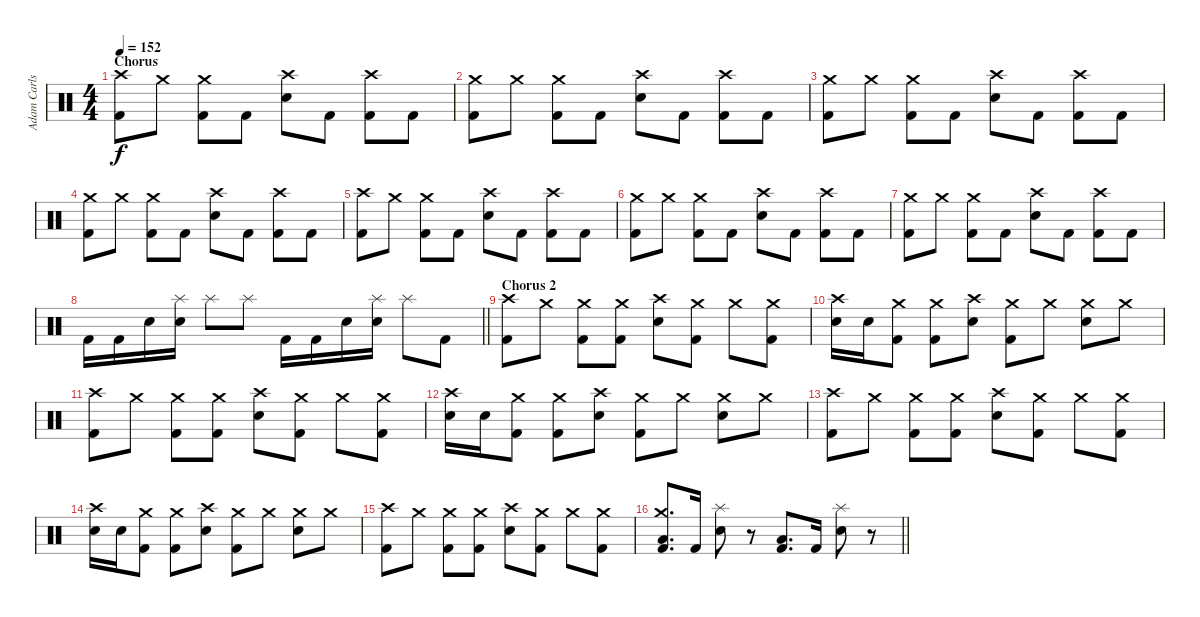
\track ("Adam Carlson" "Adam Carls") {instrument percussion}
\staff {score}
\articulation defaults
\ts (4 4)
\section ("" "Chorus")
\tempo 152
\clef neutral
\ks c
("Crash high (hit)" "Kick (hit) 2").8{dy f} "Crash medium (hit)".8 ("Crash medium (hit)" "Kick (hit) 2").8 "Kick (hit) 2".8 ("Electric Snare (hit)" "Crash high (hit)").8 "Kick (hit) 2".8 ("Kick (hit) 2" "Crash high (hit)").8 "Kick (hit) 2".8 |
("Crash medium (hit)" "Kick (hit) 2").8 "Crash medium (hit)".8 ("Crash medium (hit)" "Kick (hit) 2").8 "Kick (hit) 2".8 ("Electric Snare (hit)" "Crash high (hit)").8 "Kick (hit) 2".8 ("Kick (hit) 2" "Crash high (hit)").8 "Kick (hit) 2".8 |
("Crash medium (hit)" "Kick (hit) 2").8 "Crash medium (hit)".8 ("Crash medium (hit)" "Kick (hit) 2").8 "Kick (hit) 2".8 ("Electric Snare (hit)" "Crash high (hit)").8 "Kick (hit) 2".8 ("Kick (hit) 2" "Crash high (hit)").8 "Kick (hit) 2".8 |
("Crash medium (hit)" "Kick (hit) 2").8 "Crash medium (hit)".8 ("Crash medium (hit)" "Kick (hit) 2").8 "Kick (hit) 2".8 ("Electric Snare (hit)" "Crash high (hit)").8 "Kick (hit) 2".8 ("Kick (hit) 2" "Crash high (hit)").8 "Kick (hit) 2".8 |
("Crash high (hit)" "Kick (hit) 2").8 "Crash medium (hit)".8 ("Crash medium (hit)" "Kick (hit) 2").8 "Kick (hit) 2".8 ("Electric Snare (hit)" "Crash high (hit)").8 "Kick (hit) 2".8 ("Kick (hit) 2" "Crash high (hit)").8 "Kick (hit) 2".8 |
("Crash medium (hit)" "Kick (hit) 2").8 "Crash medium (hit)".8 ("Crash medium (hit)" "Kick (hit) 2").8 "Kick (hit) 2".8 ("Electric Snare (hit)" "Crash high (hit)").8 "Kick (hit) 2".8 ("Kick (hit) 2" "Crash high (hit)").8 "Kick (hit) 2".8 |
("Crash medium (hit)" "Kick (hit) 2").8 "Crash medium (hit)".8 ("Crash medium (hit)" "Kick (hit) 2").8 "Kick (hit) 2".8 ("Electric Snare (hit)" "Crash high (hit)").8 "Kick (hit) 2".8 ("Kick (hit) 2" "Crash high (hit)").8 "Kick (hit) 2".8 |
\barLineRight lightlight "Kick (hit) 2".16 "Kick (hit) 2".16 "Electric Snare (hit)".16
("Splash (hit)" "Electric Snare (hit)").16 "Splash (hit)".8 "Splash (hit)".8 "Kick (hit) 2".16 "Kick (hit) 2".16 "Electric Snare (hit)".16 ("Splash (hit)" "Electric Snare (hit)").16 "Splash (hit)".8 "Kick (hit) 2".8 |
\section ("" "Chorus 2")
("Crash high (hit)" "Kick (hit) 2").8 "Crash medium (hit)".8 ("Crash medium (hit)" "Kick (hit) 2").8 ("Kick (hit) 2" "Crash medium (hit)").8 ("Electric Snare (hit)" "Crash high (hit)").8 ("Crash medium (hit)" "Kick (hit) 2").8 "Crash medium (hit)".8 ("Crash medium (hit)" "Kick (hit) 2").8 |
("Crash high (hit)" "Electric Snare (hit)").16 "Electric Snare (hit)".16 ("Crash medium (hit)" "Kick (hit) 2").8 ("Crash medium (hit)" "Kick (hit) 2").8 ("Electric Snare (hit)" "Crash high (hit)").8 ("Crash medium (hit)" "Kick (hit) 2").8 "Crash medium (hit)".8 ("Crash medium (hit)" "Electric Snare (hit)").8 "Crash medium (hit)".8 |
("Crash high (hit)" "Kick (hit) 2").8 "Crash medium (hit)".8 ("Crash medium (hit)" "Kick (hit) 2").8 ("Kick (hit) 2" "Crash medium (hit)").8 ("Electric Snare (hit)" "Crash high (hit)").8 ("Crash medium (hit)" "Kick (hit) 2").8 "Crash medium (hit)".8 ("Crash medium (hit)" "Kick (hit) 2").8 |
("Crash high (hit)" "Electric Snare (hit)").16 "Electric Snare (hit)".16 ("Crash medium (hit)" "Kick (hit) 2").8 ("Crash medium (hit)" "Kick (hit) 2").8 ("Electric Snare (hit)" "Crash high (hit)").8 ("Crash medium (hit)" "Kick (hit) 2").8 "Crash medium (hit)".8 ("Crash medium (hit)" "Electric Snare (hit)").8 "Crash medium (hit)".8 |
("Crash high (hit)" "Kick (hit) 2").8 "Crash medium (hit)".8 ("Crash medium (hit)" "Kick (hit) 2").8 ("Kick (hit) 2" "Crash medium (hit)").8 ("Electric Snare (hit)" "Crash high (hit)").8 ("Crash medium (hit)" "Kick (hit) 2").8 "Crash medium (hit)".8 ("Crash medium (hit)" "Kick (hit) 2").8 |
("Crash high (hit)" "Electric Snare (hit)").16 "Electric Snare (hit)".16 ("Crash medium (hit)" "Kick (hit) 2").8 ("Crash medium (hit)" "Kick (hit) 2").8 ("Electric Snare (hit)" "Crash high (hit)").8 ("Crash medium (hit)" "Kick (hit) 2").8 "Crash medium (hit)".8 ("Crash medium (hit)" "Electric Snare (hit)").8 "Crash medium (hit)".8 |
("Crash high (hit)" "Kick (hit) 2").8 "Crash medium (hit)".8 ("Crash medium (hit)" "Kick (hit) 2").8 ("Kick (hit) 2" "Crash medium (hit)").8 ("Electric Snare (hit)" "Crash high (hit)").8 ("Crash medium (hit)" "Kick (hit) 2").8 "Crash medium (hit)".8 ("Crash medium (hit)" "Kick (hit) 2").8 |
\barLineRight lightlight
("Crash medium (hit)" "Kick (hit) 2" "Low Floor Tom (hit)").8{d} "Kick (hit) 2".16 ("Splash (hit)" "Electric Snare (hit)").8 r.8 ("Kick (hit) 2" "Low Floor Tom (hit)").8{d} "Kick (hit) 2".16 ("Splash (hit)" "Electric Snare (hit)").8 r.8
